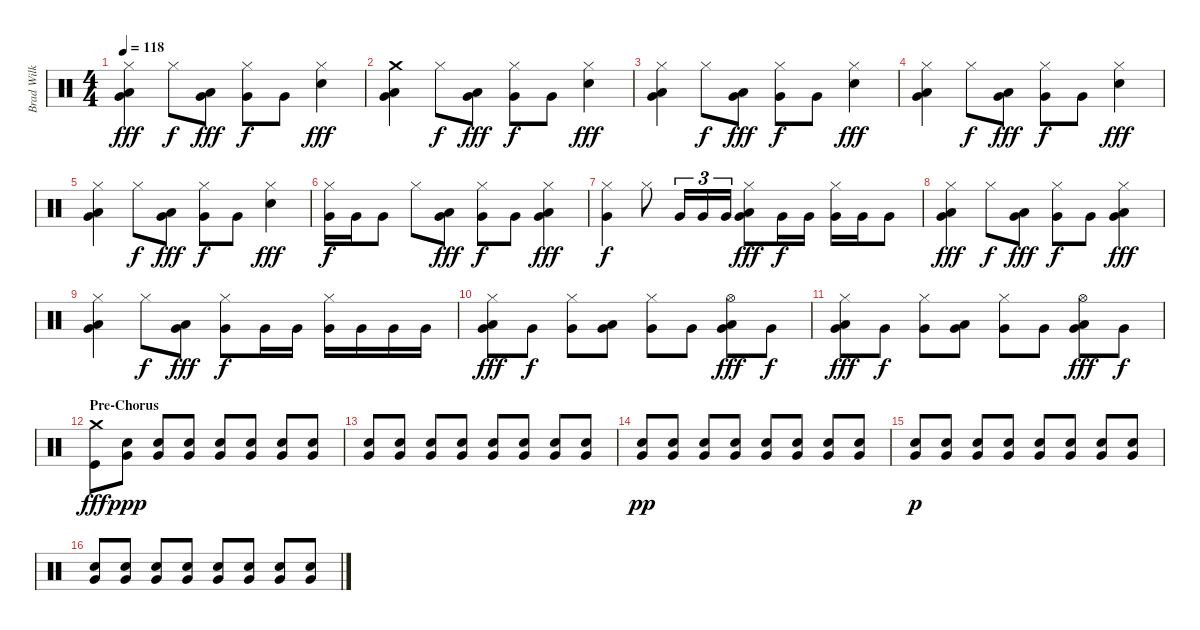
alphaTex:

\track ("Brad Wilk - Drums" "Brad Wilk ") {instrument percussion}
\staff {score}
\articulation defaults
\ts (4 4)
\tempo 118
\clef neutral
\ks c
("Hi-Hat (closed)" "Low Tom (hit)" "Very Low Tom (hit)").4{dy fff} "Hi-Hat (closed)".8{dy f} ("Low Tom (hit)" "Very Low Tom (hit)").8{dy fff} ("Hi-Hat (closed)" "Very Low Tom (hit)").8{dy f} "Very Low Tom (hit)".8 ("Hi-Hat (closed)" "Snare (hit) 2").4{dy fff} |
("Crash medium (hit)" "Low Tom (hit)" "Very Low Tom (hit)").4 "Hi-Hat (closed)".8{dy f} ("Low Tom (hit)" "Very Low Tom (hit)").8{dy fff} ("Hi-Hat (closed)" "Very Low Tom (hit)").8{dy f} "Very Low Tom (hit)".8 ("Hi-Hat (closed)" "Snare (hit) 2").4{dy fff} |
("Hi-Hat (closed)" "Low Tom (hit)" "Very Low Tom (hit)").4 "Hi-Hat (closed)".8{dy f} ("Low Tom (hit)" "Very Low Tom (hit)").8{dy fff} ("Hi-Hat (closed)" "Very Low Tom (hit)").8{dy f} "Very Low Tom (hit)".8 ("Hi-Hat (closed)" "Snare (hit) 2").4{dy fff} |
("Hi-Hat (closed)" "Low Tom (hit)" "Very Low Tom (hit)").4 "Hi-Hat (closed)".8{dy f} ("Low Tom (hit)" "Very Low Tom (hit)").8{dy fff} ("Hi-Hat (closed)" "Very Low Tom (hit)").8{dy f} "Very Low Tom (hit)".8 ("Hi-Hat (closed)" "Snare (hit) 2").4{dy fff} |
("Hi-Hat (closed)" "Low Tom (hit)" "Very Low Tom (hit)").4 "Hi-Hat (closed)".8{dy f} ("Low Tom (hit)" "Very Low Tom (hit)").8{dy fff} ("Hi-Hat (closed)" "Very Low Tom (hit)").8{dy f} "Very Low Tom (hit)".8 ("Hi-Hat (closed)" "Snare (hit) 2").4{dy fff} |
("Hi-Hat (closed)" "Very Low Tom (hit)").16{dy f} "Very Low Tom (hit)".16 "Very Low Tom (hit)".8 "Hi-Hat (closed)".8 ("Low Tom (hit)" "Very Low Tom (hit)").8{dy fff} ("Hi-Hat (closed)" "Very Low Tom (hit)").8{dy f} "Very Low Tom (hit)".8 ("Hi-Hat (closed)" "Low Tom (hit)" "Very Low Tom (hit)").4{dy fff} |
("Hi-Hat (closed)" "Very Low Tom (hit)").4{dy f} "Hi-Hat (closed)".8 "Very Low Tom (hit)".16{tu (3 2)} "Very Low Tom (hit)".16{tu (3 2)} "Very Low Tom (hit)".16{tu (3 2)} ("Hi-Hat (closed)" "Low Tom (hit)" "Very Low Tom (hit)").8{dy fff} "Very Low Tom (hit)".16{dy f} "Very Low Tom (hit)".16 ("Hi-Hat (closed)" "Very Low Tom (hit)").16 "Very Low Tom (hit)".16 "Very Low Tom (hit)".8 |
("Hi-Hat (closed)" "Low Tom (hit)" "Very Low Tom (hit)").4{dy fff} "Hi-Hat (closed)".8{dy f} ("Low Tom (hit)" "Very Low Tom (hit)").8{dy fff} ("Hi-Hat (closed)" "Very Low Tom (hit)").8{dy f} "Very Low Tom (hit)".8 ("Hi-Hat (closed)" "Low Tom (hit)" "Very Low Tom (hit)").4{dy fff} |
("Hi-Hat (closed)" "Low Tom (hit)" "Very Low Tom (hit)").4 "Hi-Hat (closed)".8{dy f} ("Low Tom (hit)" "Very Low Tom (hit)").8{dy fff} ("Hi-Hat (closed)" "Very Low Tom (hit)").8{dy f} "Very Low Tom (hit)".16 "Very Low Tom (hit)".16 ("Hi-Hat (closed)" "Very Low Tom (hit)").16 "Very Low Tom (hit)".16 "Very Low Tom (hit)".16 "Very Low Tom (hit)".16 |
("Hi-Hat (closed)" "Low Tom (hit)" "Very Low Tom (hit)").8{dy fff} "Very Low Tom (hit)".8{dy f} ("Hi-Hat (closed)" "Very Low Tom (hit)").8 ("Low Tom (hit)" "Very Low Tom (hit)").8 ("Hi-Hat (closed)" "Very Low Tom (hit)").8 "Very Low Tom (hit)".8 ("Hi-Hat (open)" "Low Tom (hit)" "Very Low Tom (hit)").8{dy fff} "Very Low Tom (hit)".8{dy f} |
("Hi-Hat (closed)" "Low Tom (hit)" "Very Low Tom (hit)").8{dy fff} "Very Low Tom (hit)".8{dy f} ("Hi-Hat (closed)" "Very Low Tom (hit)").8 ("Low Tom (hit)" "Very Low Tom (hit)").8 ("Hi-Hat (closed)" "Very Low Tom (hit)").8 "Very Low Tom (hit)".8 ("Hi-Hat (open)" "Low Tom (hit)" "Very Low Tom (hit)").8{dy fff} "Very Low Tom (hit)".8{dy f} |
\section ("" "Pre-Chorus")
("Crash medium (hit)" "Kick (hit)").8{dy fff} ("Snare (hit) 2" "Very Low Tom (hit)").8{dy ppp} ("Snare (hit) 2" "Very Low Tom (hit)").8 ("Snare (hit) 2" "Very Low Tom (hit)").8 ("Snare (hit) 2" "Very Low Tom (hit)").8 ("Snare (hit) 2" "Very Low Tom (hit)").8 ("Snare (hit) 2" "Very Low Tom (hit)").8 ("Snare (hit) 2" "Very Low Tom (hit)").8 |
("Snare (hit) 2" "Very Low Tom (hit)").8 ("Snare (hit) 2" "Very Low Tom (hit)").8 ("Snare (hit) 2" "Very Low Tom (hit)").8 ("Snare (hit) 2" "Very Low Tom (hit)").8 ("Snare (hit) 2" "Very Low Tom (hit)").8 ("Snare (hit) 2" "Very Low Tom (hit)").8 ("Snare (hit) 2" "Very Low Tom (hit)").8 ("Snare (hit) 2" "Very Low Tom (hit)").8 |
("Snare (hit) 2" "Very Low Tom (hit)").8{dy pp} ("Snare (hit) 2" "Very Low Tom (hit)").8 ("Snare (hit) 2" "Very Low Tom (hit)").8 ("Snare (hit) 2" "Very Low Tom (hit)").8 ("Snare (hit) 2" "Very Low Tom (hit)").8 ("Snare (hit) 2" "Very Low Tom (hit)").8 ("Snare (hit) 2" "Very Low Tom (hit)").8 ("Snare (hit) 2" "Very Low Tom (hit)").8 |
("Snare (hit) 2" "Very Low Tom (hit)").8{dy p} ("Snare (hit) 2" "Very Low Tom (hit)").8 ("Snare (hit) 2" "Very Low Tom (hit)").8 ("Snare (hit) 2" "Very Low Tom (hit)").8 ("Snare (hit) 2" "Very Low Tom (hit)").8 ("Snare (hit) 2" "Very Low Tom (hit)").8 ("Snare (hit) 2" "Very Low Tom (hit)").8 ("Snare (hit) 2" "Very Low Tom (hit)").8 |
("Snare (hit) 2" "Very Low Tom (hit)").8 ("Snare (hit) 2" "Very Low Tom (hit)").8 ("Snare (hit) 2" "Very Low Tom (hit)").8 ("Snare (hit) 2" "Very Low Tom (hit)").8 ("Snare (hit) 2" "Very Low Tom (hit)").8 ("Snare (hit) 2" "Very Low Tom (hit)").8 ("Snare (hit) 2" "Very Low Tom (hit)").8 ("Snare (hit) 2" "Very Low Tom (hit)").8
